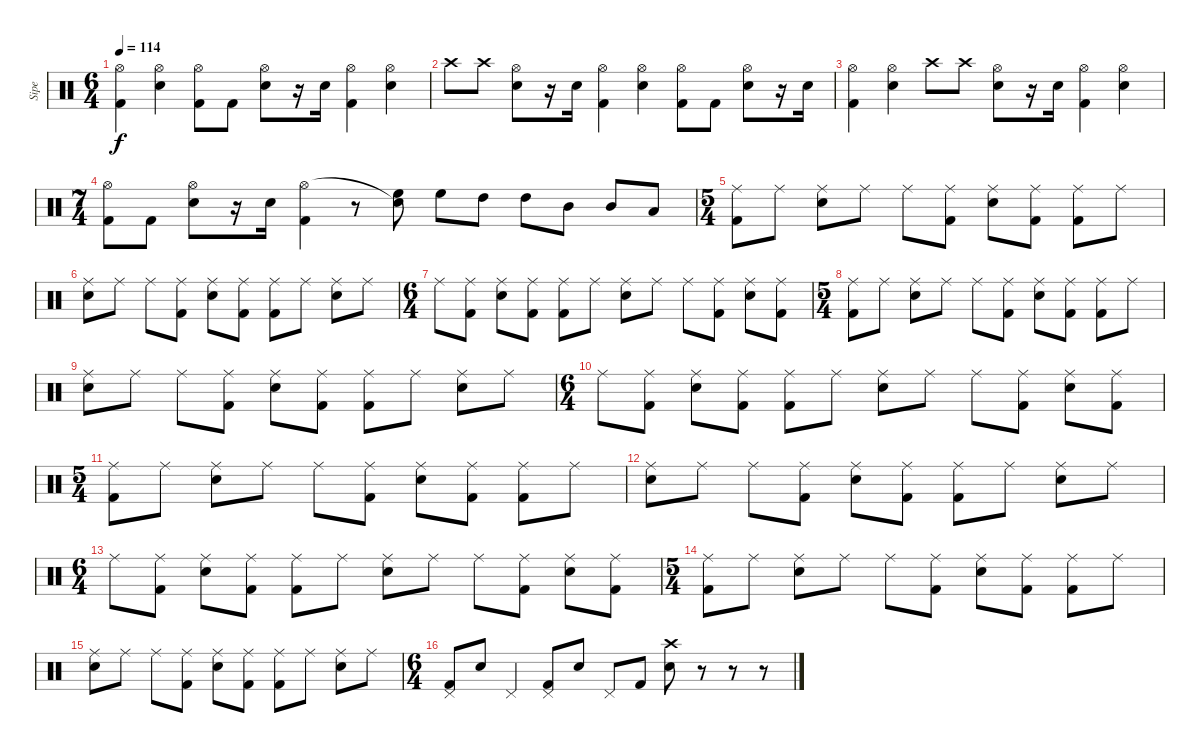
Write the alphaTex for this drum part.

\track ("Sipe" "Sipe") {instrument percussion}
\staff {score}
\articulation defaults
\ts (6 4)
\tempo 114
\clef neutral
\ks c
("Hi-Hat (open)" "Kick (hit) 2").4{dy f} ("Hi-Hat (open)" "Snare (hit) 2").4 ("Hi-Hat (open)" "Kick (hit) 2").8 "Kick (hit) 2".8 ("Hi-Hat (open)" "Snare (hit) 2").8 r.16 "Snare (hit) 2".16 ("Hi-Hat (open)" "Kick (hit) 2").4 ("Hi-Hat (open)" "Snare (hit) 2").4 |
"Crash high (hit)".8 "Crash high (hit)".8 ("Hi-Hat (open)" "Snare (hit) 2").8 r.16 "Snare (hit) 2".16 ("Hi-Hat (open)" "Kick (hit) 2").4 ("Hi-Hat (open)" "Snare (hit) 2").4 ("Hi-Hat (open)" "Kick (hit) 2").8 "Kick (hit) 2".8 ("Hi-Hat (open)" "Snare (hit) 2").8 r.16 "Snare (hit) 2".16 |
("Hi-Hat (open)" "Kick (hit) 2").4 ("Hi-Hat (open)" "Snare (hit) 2").4 "Crash high (hit)".8 "Crash high (hit)".8 ("Hi-Hat (open)" "Snare (hit) 2").8 r.16 "Snare (hit) 2".16 ("Hi-Hat (open)" "Kick (hit) 2").4 ("Hi-Hat (open)" "Snare (hit) 2").4 |
\ts (7 4)
("Hi-Hat (open)" "Kick (hit) 2").8 "Kick (hit) 2".8 ("Hi-Hat (open)" "Snare (hit) 2").8 r.16 "Snare (hit) 2".16 ("Hi-Hat (open)" "Kick (hit) 2").4 r.8 ("Snare (hit)"{t} "High Floor Tom (hit)").8 "High Floor Tom (hit)".8 "High Tom (hit)".8 "High Tom (hit)".8 "Mid Tom (hit)".8 "Mid Tom (hit)".8 "Low Tom (hit)".8 |
\ts (5 4)
("Ride (middle)" "Kick (hit) 2").8 "Ride (middle)".8 ("Ride (middle)" "Snare (hit) 2").8 "Ride (middle)".8 "Ride (middle)".8 ("Ride (middle)" "Kick (hit) 2").8 ("Ride (middle)" "Snare (hit) 2").8 ("Ride (middle)" "Kick (hit) 2").8 ("Ride (middle)" "Kick (hit) 2").8 "Ride (middle)".8 |
("Ride (middle)" "Snare (hit) 2").8 "Ride (middle)".8 "Ride (middle)".8 ("Ride (middle)" "Kick (hit) 2").8 ("Ride (middle)" "Snare (hit) 2").8 ("Ride (middle)" "Kick (hit) 2").8 ("Ride (middle)" "Kick (hit) 2").8 "Ride (middle)".8 ("Ride (middle)" "Snare (hit) 2").8 "Ride (middle)".8 |
\ts (6 4)
"Ride (middle)".8 ("Ride (middle)" "Kick (hit) 2").8 ("Ride (middle)" "Snare (hit) 2").8 ("Ride (middle)" "Kick (hit) 2").8 ("Ride (middle)" "Kick (hit) 2").8 "Ride (middle)".8 ("Ride (middle)" "Snare (hit) 2").8 "Ride (middle)".8 "Ride (middle)".8 ("Ride (middle)" "Kick (hit) 2").8 ("Ride (middle)" "Snare (hit) 2").8 ("Ride (middle)" "Kick (hit) 2").8 |
\ts (5 4)
("Ride (middle)" "Kick (hit) 2").8 "Ride (middle)".8 ("Ride (middle)" "Snare (hit) 2").8 "Ride (middle)".8 "Ride (middle)".8 ("Ride (middle)" "Kick (hit) 2").8 ("Ride (middle)" "Snare (hit) 2").8 ("Ride (middle)" "Kick (hit) 2").8 ("Ride (middle)" "Kick (hit) 2").8 "Ride (middle)".8 |
("Ride (middle)" "Snare (hit) 2").8 "Ride (middle)".8 "Ride (middle)".8 ("Ride (middle)" "Kick (hit) 2").8 ("Ride (middle)" "Snare (hit) 2").8 ("Ride (middle)" "Kick (hit) 2").8 ("Ride (middle)" "Kick (hit) 2").8 "Ride (middle)".8 ("Ride (middle)" "Snare (hit) 2").8 "Ride (middle)".8 |
\ts (6 4)
"Ride (middle)".8 ("Ride (middle)" "Kick (hit) 2").8 ("Ride (middle)" "Snare (hit) 2").8 ("Ride (middle)" "Kick (hit) 2").8 ("Ride (middle)" "Kick (hit) 2").8 "Ride (middle)".8 ("Ride (middle)" "Snare (hit) 2").8 "Ride (middle)".8 "Ride (middle)".8 ("Ride (middle)" "Kick (hit) 2").8 ("Ride (middle)" "Snare (hit) 2").8 ("Ride (middle)" "Kick (hit) 2").8 |
\ts (5 4)
("Ride (middle)" "Kick (hit) 2").8 "Ride (middle)".8 ("Ride (middle)" "Snare (hit) 2").8 "Ride (middle)".8 "Ride (middle)".8 ("Ride (middle)" "Kick (hit) 2").8 ("Ride (middle)" "Snare (hit) 2").8 ("Ride (middle)" "Kick (hit) 2").8 ("Ride (middle)" "Kick (hit) 2").8 "Ride (middle)".8 |
("Ride (middle)" "Snare (hit) 2").8 "Ride (middle)".8 "Ride (middle)".8 ("Ride (middle)" "Kick (hit) 2").8 ("Ride (middle)" "Snare (hit) 2").8 ("Ride (middle)" "Kick (hit) 2").8 ("Ride (middle)" "Kick (hit) 2").8 "Ride (middle)".8 ("Ride (middle)" "Snare (hit) 2").8 "Ride (middle)".8 |
\ts (6 4)
"Ride (middle)".8 ("Ride (middle)" "Kick (hit) 2").8 ("Ride (middle)" "Snare (hit) 2").8 ("Ride (middle)" "Kick (hit) 2").8 ("Ride (middle)" "Kick (hit) 2").8 "Ride (middle)".8 ("Ride (middle)" "Snare (hit) 2").8 "Ride (middle)".8 "Ride (middle)".8 ("Ride (middle)" "Kick (hit) 2").8 ("Ride (middle)" "Snare (hit) 2").8 ("Ride (middle)" "Kick (hit) 2").8 |
\ts (5 4)
("Ride (middle)" "Kick (hit) 2").8 "Ride (middle)".8 ("Ride (middle)" "Snare (hit) 2").8 "Ride (middle)".8 "Ride (middle)".8 ("Ride (middle)" "Kick (hit) 2").8 ("Ride (middle)" "Snare (hit) 2").8 ("Ride (middle)" "Kick (hit) 2").8 ("Ride (middle)" "Kick (hit) 2").8 "Ride (middle)".8 |
("Ride (middle)" "Snare (hit) 2").8 "Ride (middle)".8 "Ride (middle)".8 ("Ride (middle)" "Kick (hit) 2").8 ("Ride (middle)" "Snare (hit) 2").8 ("Ride (middle)" "Kick (hit) 2").8 ("Ride (middle)" "Kick (hit) 2").8 "Ride (middle)".8 ("Ride (middle)" "Snare (hit) 2").8 "Ride (middle)".8 |
\ts (6 4)
("Pedal Hi-Hat (hit)" "Kick (hit) 2").8 "Snare (hit) 2".8 "Pedal Hi-Hat (hit)".4 ("Pedal Hi-Hat (hit)" "Kick (hit) 2").8 "Snare (hit) 2".8 "Pedal Hi-Hat (hit)".8 "Kick (hit) 2".8 ("Crash high (hit)" "Snare (hit) 2").8 r.8 r.8 r.8
